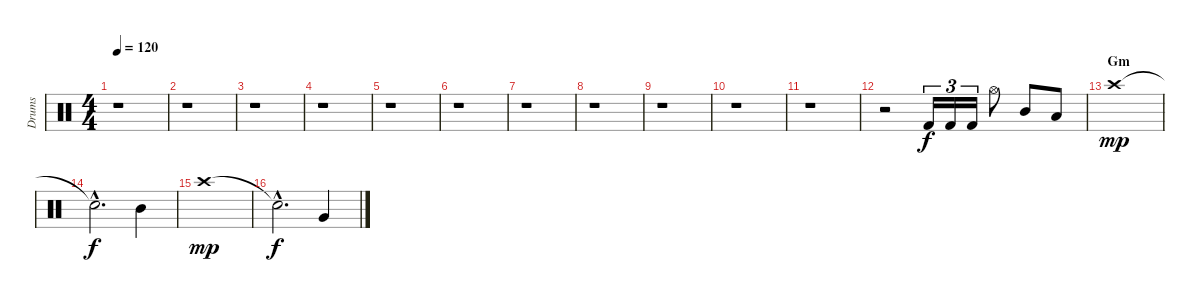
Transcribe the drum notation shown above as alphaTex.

\track ("Drums" "Drums") {instrument percussion}
\staff {score}
\articulation defaults
\ts (4 4)
\tempo 120
\clef neutral
\ks c
r.1{dy f} |
r.1 |
r.1 |
r.1 |
r.1 |
r.1 |
r.1 |
r.1 |
r.1 |
r.1 |
r.1 |
r.2 "Kick (hit) 2".16{tu (3 2)} "Kick (hit) 2".16{tu (3 2)} "Kick (hit) 2".16{tu (3 2)} "Hi-Hat (open)".8 "Mid Tom (hit)".8 "Low Tom (hit)".8 |
\section ("" "Gm")
"Crash high (hit)".1{dy mp} |
"Snare (hit)"{hac t}.2{d dy f} "Mid Tom (hit)".4 |
"Crash high (hit)".1{dy mp} |
"Snare (hit)"{hac t}.2{d dy f} "Very Low Tom (hit)".4
